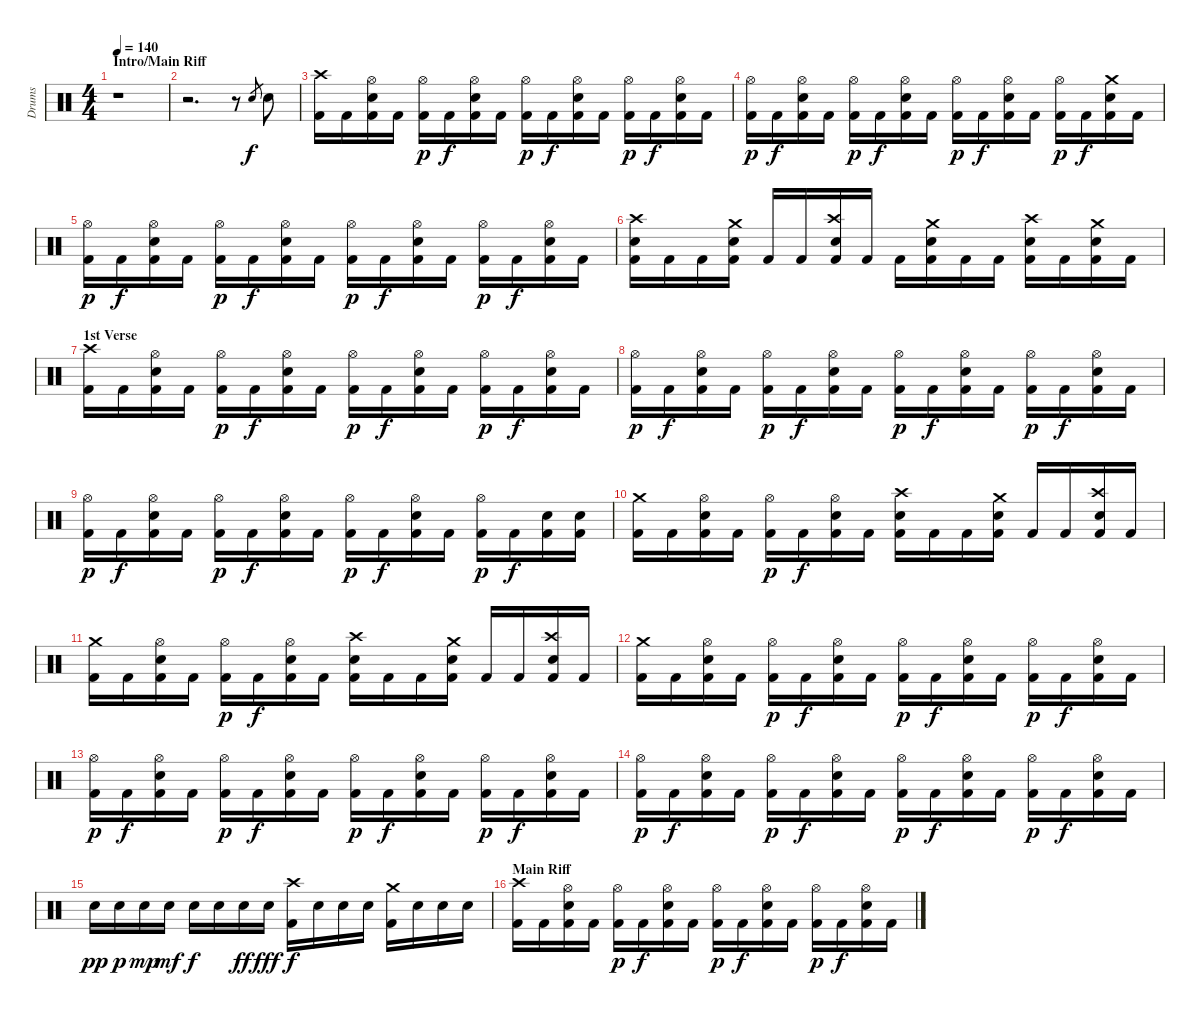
\track ("Drums" "Drums") {instrument percussion}
\staff {score}
\articulation defaults
\ts (4 4)
\section ("" "Intro/Main Riff")
\tempo 140
\clef neutral
\ks c
r.1{dy f} |
r.2{d} r.8 "Snare (hit) 2".8{gr} "Snare (hit) 2".8 |
("Crash high (hit)" "Kick (hit) 2").16 "Kick (hit) 2".16 ("Hi-Hat (open)" "Snare (hit) 2" "Kick (hit) 2").16 "Kick (hit) 2".16 ("Hi-Hat (open)" "Kick (hit) 2").16{dy p} "Kick (hit) 2".16{dy f} ("Hi-Hat (open)" "Snare (hit) 2" "Kick (hit) 2").16 "Kick (hit) 2".16 ("Hi-Hat (open)" "Kick (hit) 2").16{dy p} "Kick (hit) 2".16{dy f} ("Hi-Hat (open)" "Snare (hit) 2" "Kick (hit) 2").16 "Kick (hit) 2".16 ("Hi-Hat (open)" "Kick (hit) 2").16{dy p} "Kick (hit) 2".16{dy f} ("Hi-Hat (open)" "Snare (hit) 2" "Kick (hit) 2").16 "Kick (hit) 2".16 |
("Hi-Hat (open)" "Kick (hit) 2").16{dy p} "Kick (hit) 2".16{dy f} ("Hi-Hat (open)" "Snare (hit) 2" "Kick (hit) 2").16 "Kick (hit) 2".16 ("Hi-Hat (open)" "Kick (hit) 2").16{dy p} "Kick (hit) 2".16{dy f} ("Hi-Hat (open)" "Snare (hit) 2" "Kick (hit) 2").16 "Kick (hit) 2".16 ("Hi-Hat (open)" "Kick (hit) 2").16{dy p} "Kick (hit) 2".16{dy f} ("Hi-Hat (open)" "Snare (hit) 2" "Kick (hit) 2").16 "Kick (hit) 2".16 ("Hi-Hat (open)" "Kick (hit) 2").16{dy p} "Kick (hit) 2".16{dy f} ("Crash medium (hit)" "Snare (hit) 2" "Kick (hit) 2").16 "Kick (hit) 2".16 |
("Hi-Hat (open)" "Kick (hit) 2").16{dy p} "Kick (hit) 2".16{dy f} ("Hi-Hat (open)" "Snare (hit) 2" "Kick (hit) 2").16 "Kick (hit) 2".16 ("Hi-Hat (open)" "Kick (hit) 2").16{dy p} "Kick (hit) 2".16{dy f} ("Hi-Hat (open)" "Snare (hit) 2" "Kick (hit) 2").16 "Kick (hit) 2".16 ("Hi-Hat (open)" "Kick (hit) 2").16{dy p} "Kick (hit) 2".16{dy f} ("Hi-Hat (open)" "Snare (hit) 2" "Kick (hit) 2").16 "Kick (hit) 2".16 ("Hi-Hat (open)" "Kick (hit) 2").16{dy p} "Kick (hit) 2".16{dy f} ("Hi-Hat (open)" "Snare (hit) 2" "Kick (hit) 2").16 "Kick (hit) 2".16 |
("Crash high (hit)" "Snare (hit) 2" "Kick (hit) 2").16 "Kick (hit) 2".16 "Kick (hit) 2".16 ("Crash medium (hit)" "Snare (hit) 2" "Kick (hit) 2").16 "Kick (hit) 2".16 "Kick (hit) 2".16 ("Crash high (hit)" "Snare (hit) 2" "Kick (hit) 2").16 "Kick (hit) 2".16 "Kick (hit) 2".16 ("Crash medium (hit)" "Snare (hit) 2" "Kick (hit) 2").16 "Kick (hit) 2".16 "Kick (hit) 2".16 ("Crash high (hit)" "Snare (hit) 2" "Kick (hit) 2").16 "Kick (hit) 2".16 ("Crash medium (hit)" "Snare (hit) 2" "Kick (hit) 2").16 "Kick (hit) 2".16 |
\section ("" "1st Verse ")
("Crash high (hit)" "Kick (hit) 2").16 "Kick (hit) 2".16 ("Hi-Hat (open)" "Snare (hit) 2" "Kick (hit) 2").16 "Kick (hit) 2".16 ("Hi-Hat (open)" "Kick (hit) 2").16{dy p} "Kick (hit) 2".16{dy f} ("Hi-Hat (open)" "Snare (hit) 2" "Kick (hit) 2").16 "Kick (hit) 2".16 ("Hi-Hat (open)" "Kick (hit) 2").16{dy p} "Kick (hit) 2".16{dy f} ("Hi-Hat (open)" "Snare (hit) 2" "Kick (hit) 2").16 "Kick (hit) 2".16 ("Hi-Hat (open)" "Kick (hit) 2").16{dy p} "Kick (hit) 2".16{dy f} ("Hi-Hat (open)" "Snare (hit) 2" "Kick (hit) 2").16 "Kick (hit) 2".16 |
("Hi-Hat (open)" "Kick (hit) 2").16{dy p} "Kick (hit) 2".16{dy f} ("Hi-Hat (open)" "Snare (hit) 2" "Kick (hit) 2").16 "Kick (hit) 2".16 ("Hi-Hat (open)" "Kick (hit) 2").16{dy p} "Kick (hit) 2".16{dy f} ("Hi-Hat (open)" "Snare (hit) 2" "Kick (hit) 2").16 "Kick (hit) 2".16 ("Hi-Hat (open)" "Kick (hit) 2").16{dy p} "Kick (hit) 2".16{dy f} ("Hi-Hat (open)" "Snare (hit) 2" "Kick (hit) 2").16 "Kick (hit) 2".16 ("Hi-Hat (open)" "Kick (hit) 2").16{dy p} "Kick (hit) 2".16{dy f} ("Hi-Hat (open)" "Snare (hit) 2" "Kick (hit) 2").16 "Kick (hit) 2".16 |
("Hi-Hat (open)" "Kick (hit) 2").16{dy p} "Kick (hit) 2".16{dy f} ("Hi-Hat (open)" "Snare (hit) 2" "Kick (hit) 2").16 "Kick (hit) 2".16 ("Hi-Hat (open)" "Kick (hit) 2").16{dy p} "Kick (hit) 2".16{dy f} ("Hi-Hat (open)" "Snare (hit) 2" "Kick (hit) 2").16 "Kick (hit) 2".16 ("Hi-Hat (open)" "Kick (hit) 2").16{dy p} "Kick (hit) 2".16{dy f} ("Hi-Hat (open)" "Snare (hit) 2" "Kick (hit) 2").16 "Kick (hit) 2".16 ("Hi-Hat (open)" "Kick (hit) 2").16{dy p} "Kick (hit) 2".16{dy f} ("Snare (hit) 2" "Kick (hit) 2").16 ("Snare (hit) 2" "Kick (hit) 2").16 |
("Crash medium (hit)" "Kick (hit) 2").16 "Kick (hit) 2".16 ("Hi-Hat (open)" "Snare (hit) 2" "Kick (hit) 2").16 "Kick (hit) 2".16 ("Hi-Hat (open)" "Kick (hit) 2").16{dy p} "Kick (hit) 2".16{dy f} ("Hi-Hat (open)" "Snare (hit) 2" "Kick (hit) 2").16 "Kick (hit) 2".16 ("Crash high (hit)" "Snare (hit) 2" "Kick (hit) 2").16 "Kick (hit) 2".16 "Kick (hit) 2".16 ("Crash medium (hit)" "Snare (hit) 2" "Kick (hit) 2").16 "Kick (hit) 2".16 "Kick (hit) 2".16 ("Crash high (hit)" "Snare (hit) 2" "Kick (hit) 2").16 "Kick (hit) 2".16 |
("Crash medium (hit)" "Kick (hit) 2").16 "Kick (hit) 2".16 ("Hi-Hat (open)" "Snare (hit) 2" "Kick (hit) 2").16 "Kick (hit) 2".16 ("Hi-Hat (open)" "Kick (hit) 2").16{dy p} "Kick (hit) 2".16{dy f} ("Hi-Hat (open)" "Snare (hit) 2" "Kick (hit) 2").16 "Kick (hit) 2".16 ("Crash high (hit)" "Snare (hit) 2" "Kick (hit) 2").16 "Kick (hit) 2".16 "Kick (hit) 2".16 ("Crash medium (hit)" "Snare (hit) 2" "Kick (hit) 2").16 "Kick (hit) 2".16 "Kick (hit) 2".16 ("Crash high (hit)" "Snare (hit) 2" "Kick (hit) 2").16 "Kick (hit) 2".16 |
("Crash medium (hit)" "Kick (hit) 2").16 "Kick (hit) 2".16 ("Hi-Hat (open)" "Snare (hit) 2" "Kick (hit) 2").16 "Kick (hit) 2".16 ("Hi-Hat (open)" "Kick (hit) 2").16{dy p} "Kick (hit) 2".16{dy f} ("Hi-Hat (open)" "Snare (hit) 2" "Kick (hit) 2").16 "Kick (hit) 2".16 ("Hi-Hat (open)" "Kick (hit) 2").16{dy p} "Kick (hit) 2".16{dy f} ("Hi-Hat (open)" "Snare (hit) 2" "Kick (hit) 2").16 "Kick (hit) 2".16 ("Hi-Hat (open)" "Kick (hit) 2").16{dy p} "Kick (hit) 2".16{dy f} ("Hi-Hat (open)" "Snare (hit) 2" "Kick (hit) 2").16 "Kick (hit) 2".16 |
("Hi-Hat (open)" "Kick (hit) 2").16{dy p} "Kick (hit) 2".16{dy f} ("Hi-Hat (open)" "Snare (hit) 2" "Kick (hit) 2").16 "Kick (hit) 2".16 ("Hi-Hat (open)" "Kick (hit) 2").16{dy p} "Kick (hit) 2".16{dy f} ("Hi-Hat (open)" "Snare (hit) 2" "Kick (hit) 2").16 "Kick (hit) 2".16 ("Hi-Hat (open)" "Kick (hit) 2").16{dy p} "Kick (hit) 2".16{dy f} ("Hi-Hat (open)" "Snare (hit) 2" "Kick (hit) 2").16 "Kick (hit) 2".16 ("Hi-Hat (open)" "Kick (hit) 2").16{dy p} "Kick (hit) 2".16{dy f} ("Hi-Hat (open)" "Snare (hit) 2" "Kick (hit) 2").16 "Kick (hit) 2".16 |
("Hi-Hat (open)" "Kick (hit) 2").16{dy p} "Kick (hit) 2".16{dy f} ("Hi-Hat (open)" "Snare (hit) 2" "Kick (hit) 2").16 "Kick (hit) 2".16 ("Hi-Hat (open)" "Kick (hit) 2").16{dy p} "Kick (hit) 2".16{dy f} ("Hi-Hat (open)" "Snare (hit) 2" "Kick (hit) 2").16 "Kick (hit) 2".16 ("Hi-Hat (open)" "Kick (hit) 2").16{dy p} "Kick (hit) 2".16{dy f} ("Hi-Hat (open)" "Snare (hit) 2" "Kick (hit) 2").16 "Kick (hit) 2".16 ("Hi-Hat (open)" "Kick (hit) 2").16{dy p} "Kick (hit) 2".16{dy f} ("Hi-Hat (open)" "Snare (hit) 2" "Kick (hit) 2").16 "Kick (hit) 2".16 |
"Snare (hit) 2".16{dy pp} "Snare (hit) 2".16{dy p} "Snare (hit) 2".16{dy mp} "Snare (hit) 2".16{dy mf} "Snare (hit) 2".16{dy f} "Snare (hit) 2".16 "Snare (hit) 2".16{dy ff} "Snare (hit) 2".16{dy fff} ("Crash high (hit)" "Kick (hit) 2").16{dy f} "Snare (hit) 2".16 "Snare (hit) 2".16 "Snare (hit) 2".16 ("Crash medium (hit)" "Kick (hit) 2").16 "Snare (hit) 2".16 "Snare (hit) 2".16 "Snare (hit) 2".16 |
\section ("" "Main Riff")
("Crash high (hit)" "Kick (hit) 2").16 "Kick (hit) 2".16 ("Hi-Hat (open)" "Snare (hit) 2" "Kick (hit) 2").16 "Kick (hit) 2".16 ("Hi-Hat (open)" "Kick (hit) 2").16{dy p} "Kick (hit) 2".16{dy f} ("Hi-Hat (open)" "Snare (hit) 2" "Kick (hit) 2").16 "Kick (hit) 2".16 ("Hi-Hat (open)" "Kick (hit) 2").16{dy p} "Kick (hit) 2".16{dy f} ("Hi-Hat (open)" "Snare (hit) 2" "Kick (hit) 2").16 "Kick (hit) 2".16 ("Hi-Hat (open)" "Kick (hit) 2").16{dy p} "Kick (hit) 2".16{dy f} ("Hi-Hat (open)" "Snare (hit) 2" "Kick (hit) 2").16 "Kick (hit) 2".16
